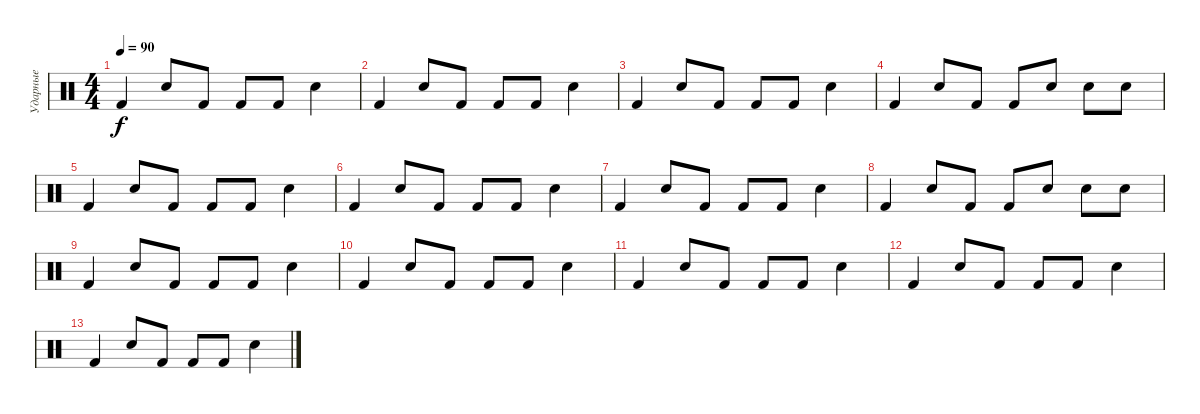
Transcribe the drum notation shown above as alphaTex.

\track ("Ударные" "Ударные") {instrument percussion}
\staff {score}
\articulation defaults
\ts (4 4)
\tempo 90
\clef neutral
\ks c "Kick (hit) 2".4{dy f} "Electric Snare (hit)".8 "Kick (hit) 2".8 "Kick (hit) 2".8 "Kick (hit) 2".8 "Electric Snare (hit)".4
|
"Kick (hit) 2".4 "Electric Snare (hit)".8 "Kick (hit) 2".8 "Kick (hit) 2".8 "Kick (hit) 2".8 "Electric Snare (hit)".4 |
"Kick (hit) 2".4 "Electric Snare (hit)".8 "Kick (hit) 2".8 "Kick (hit) 2".8 "Kick (hit) 2".8 "Electric Snare (hit)".4 |
"Kick (hit) 2".4 "Electric Snare (hit)".8 "Kick (hit) 2".8 "Kick (hit) 2".8 "Electric Snare (hit)".8 "Electric Snare (hit)".8 "Electric Snare (hit)".8 |
"Kick (hit) 2".4 "Electric Snare (hit)".8 "Kick (hit) 2".8 "Kick (hit) 2".8 "Kick (hit) 2".8 "Electric Snare (hit)".4 |
"Kick (hit) 2".4 "Electric Snare (hit)".8 "Kick (hit) 2".8 "Kick (hit) 2".8 "Kick (hit) 2".8 "Electric Snare (hit)".4 |
"Kick (hit) 2".4 "Electric Snare (hit)".8 "Kick (hit) 2".8 "Kick (hit) 2".8 "Kick (hit) 2".8 "Electric Snare (hit)".4 |
"Kick (hit) 2".4 "Electric Snare (hit)".8 "Kick (hit) 2".8 "Kick (hit) 2".8 "Electric Snare (hit)".8 "Electric Snare (hit)".8 "Electric Snare (hit)".8 |
"Kick (hit) 2".4 "Electric Snare (hit)".8 "Kick (hit) 2".8 "Kick (hit) 2".8 "Kick (hit) 2".8 "Electric Snare (hit)".4 |
"Kick (hit) 2".4 "Electric Snare (hit)".8 "Kick (hit) 2".8 "Kick (hit) 2".8 "Kick (hit) 2".8 "Electric Snare (hit)".4 |
"Kick (hit) 2".4 "Electric Snare (hit)".8 "Kick (hit) 2".8 "Kick (hit) 2".8 "Kick (hit) 2".8 "Electric Snare (hit)".4 |
"Kick (hit) 2".4 "Electric Snare (hit)".8 "Kick (hit) 2".8 "Kick (hit) 2".8 "Kick (hit) 2".8 "Electric Snare (hit)".4 |
"Kick (hit) 2".4 "Electric Snare (hit)".8 "Kick (hit) 2".8 "Kick (hit) 2".8 "Kick (hit) 2".8 "Electric Snare (hit)".4
